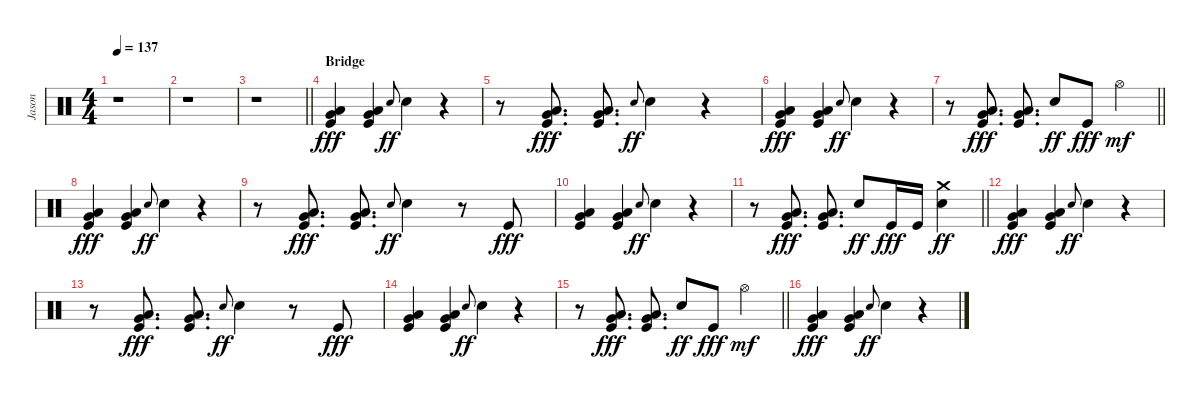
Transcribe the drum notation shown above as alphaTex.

\track ("Jason" "Jason") {instrument percussion}
\staff {score}
\articulation defaults
\ts (4 4)
\tempo 137
\clef neutral
\ks c
r.1{dy fff} |
r.1 |
\barLineRight lightlight
r.1 |
\section ("" "Bridge")
("Very Low Tom (hit)" "Low Floor Tom (hit)" "Kick (hit)").4 ("Very Low Tom (hit)" "Low Floor Tom (hit)" "Kick (hit)").4 "Electric Snare (hit)".8{gr onbeat dy ff} "Electric Snare (hit)".4 r.4 |
r.8 ("Very Low Tom (hit)" "Low Floor Tom (hit)" "Kick (hit)").8{d dy fff} ("Very Low Tom (hit)" "Low Floor Tom (hit)" "Kick (hit)").8{d} "Electric Snare (hit)".8{gr onbeat dy ff} "Electric Snare (hit)".4 r.4 |
("Very Low Tom (hit)" "Low Floor Tom (hit)" "Kick (hit)").4{dy fff} ("Very Low Tom (hit)" "Low Floor Tom (hit)" "Kick (hit)").4 "Electric Snare (hit)".8{gr onbeat dy ff} "Electric Snare (hit)".4 r.4 |
\barLineRight lightlight
r.8 ("Very Low Tom (hit)" "Low Floor Tom (hit)" "Kick (hit)").8{d dy fff} ("Very Low Tom (hit)" "Low Floor Tom (hit)" "Kick (hit)").8{d} "Electric Snare (hit)".8{dy ff} "Kick (hit)".8{dy fff} "Hi-Hat (open)".4{dy mf} |
("Very Low Tom (hit)" "Low Floor Tom (hit)" "Kick (hit)").4{dy fff} ("Very Low Tom (hit)" "Low Floor Tom (hit)" "Kick (hit)").4 "Electric Snare (hit)".8{gr onbeat dy ff} "Electric Snare (hit)".4 r.4 |
r.8 ("Very Low Tom (hit)" "Low Floor Tom (hit)" "Kick (hit)").8{d dy fff} ("Very Low Tom (hit)" "Low Floor Tom (hit)" "Kick (hit)").8{d} "Electric Snare (hit)".8{gr onbeat dy ff} "Electric Snare (hit)".4 r.8 "Kick (hit)".8{dy fff} |
("Very Low Tom (hit)" "Low Floor Tom (hit)" "Kick (hit)").4 ("Very Low Tom (hit)" "Low Floor Tom (hit)" "Kick (hit)").4 "Electric Snare (hit)".8{gr onbeat dy ff} "Electric Snare (hit)".4 r.4 |
\barLineRight lightlight
r.8 ("Very Low Tom (hit)" "Low Floor Tom (hit)" "Kick (hit)").8{d dy fff} ("Very Low Tom (hit)" "Low Floor Tom (hit)" "Kick (hit)").8{d} "Electric Snare (hit)".8{dy ff} "Kick (hit)".16{dy fff} "Kick (hit)".16 ("Crash medium (hit)" "Electric Snare (hit)").4{dy ff} |
("Very Low Tom (hit)" "Low Floor Tom (hit)" "Kick (hit)").4{dy fff} ("Very Low Tom (hit)" "Low Floor Tom (hit)" "Kick (hit)").4 "Electric Snare (hit)".8{gr onbeat dy ff} "Electric Snare (hit)".4 r.4 |
r.8 ("Very Low Tom (hit)" "Low Floor Tom (hit)" "Kick (hit)").8{d dy fff} ("Very Low Tom (hit)" "Low Floor Tom (hit)" "Kick (hit)").8{d} "Electric Snare (hit)".8{gr onbeat dy ff} "Electric Snare (hit)".4 r.8 "Kick (hit)".8{dy fff} |
("Very Low Tom (hit)" "Low Floor Tom (hit)" "Kick (hit)").4 ("Very Low Tom (hit)" "Low Floor Tom (hit)" "Kick (hit)").4 "Electric Snare (hit)".8{gr onbeat dy ff} "Electric Snare (hit)".4 r.4 |
\barLineRight lightlight
r.8 ("Very Low Tom (hit)" "Low Floor Tom (hit)" "Kick (hit)").8{d dy fff} ("Very Low Tom (hit)" "Low Floor Tom (hit)" "Kick (hit)").8{d} "Electric Snare (hit)".8{dy ff} "Kick (hit)".8{dy fff} "Hi-Hat (open)".4{dy mf} |
("Very Low Tom (hit)" "Low Floor Tom (hit)" "Kick (hit)").4{dy fff} ("Very Low Tom (hit)" "Low Floor Tom (hit)" "Kick (hit)").4 "Electric Snare (hit)".8{gr onbeat dy ff} "Electric Snare (hit)".4 r.4
